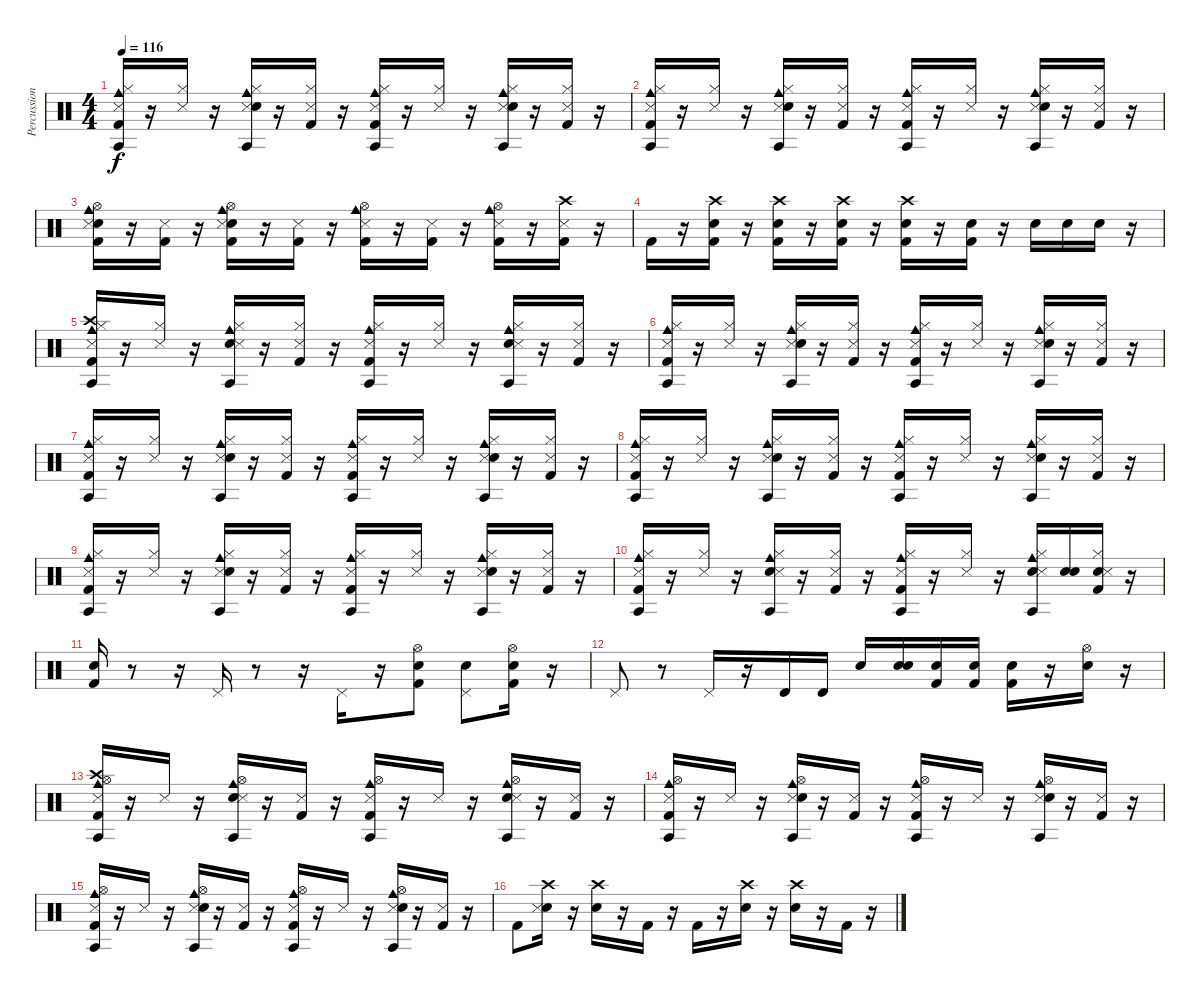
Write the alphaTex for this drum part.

\track ("Percussion" "Percussion") {instrument percussion}
\staff {score}
\articulation defaults
\ts (4 4)
\tempo 116
\clef neutral
\ks c
("Agogo tow (hit)" "Snare (side stick) 3" "Cowbell medium (hit)" "Hi-Hat (closed)" "Kick (hit) 2").16{dy f} r.16 ("Snare (side stick) 3" "Hi-Hat (closed)").16 r.16 ("Agogo tow (hit)" "Snare (side stick) 3" "Cowbell medium (hit)" "Hi-Hat (closed)" "Snare (hit) 2").16 r.16 ("Snare (side stick) 3" "Hi-Hat (closed)" "Kick (hit) 2").16 r.16 ("Agogo tow (hit)" "Snare (side stick) 3" "Cowbell medium (hit)" "Hi-Hat (closed)" "Kick (hit) 2").16 r.16 ("Snare (side stick) 3" "Hi-Hat (closed)").16 r.16 ("Agogo tow (hit)" "Snare (side stick) 3" "Cowbell medium (hit)" "Hi-Hat (closed)" "Snare (hit) 2").16 r.16 ("Snare (side stick) 3" "Hi-Hat (closed)" "Kick (hit) 2").16 r.16 |
("Cowbell medium (hit)" "Snare (side stick) 3" "Agogo tow (hit)" "Kick (hit) 2" "Hi-Hat (closed)").16 r.16 ("Snare (side stick) 3" "Hi-Hat (closed)").16 r.16 ("Cowbell medium (hit)" "Snare (side stick) 3" "Agogo tow (hit)" "Snare (hit) 2" "Hi-Hat (closed)").16 r.16 ("Snare (side stick) 3" "Kick (hit) 2" "Hi-Hat (closed)").16 r.16 ("Cowbell medium (hit)" "Snare (side stick) 3" "Agogo tow (hit)" "Kick (hit) 2" "Hi-Hat (closed)").16 r.16 ("Snare (side stick) 3" "Hi-Hat (closed)").16 r.16 ("Cowbell medium (hit)" "Snare (side stick) 3" "Agogo tow (hit)" "Snare (hit) 2" "Hi-Hat (closed)").16 r.16 ("Snare (side stick) 3" "Kick (hit) 2" "Hi-Hat (closed)").16 r.16 |
("Electric Snare (hit)" "Snare (side stick) 3" "Cowbell medium (hit)" "Hi-Hat (open)" "Kick (hit) 2").16 r.16 ("Snare (side stick) 3" "Kick (hit) 2").16 r.16 ("Electric Snare (hit)" "Snare (side stick) 3" "Cowbell medium (hit)" "Hi-Hat (open)" "Kick (hit) 2").16 r.16 ("Snare (side stick) 3" "Kick (hit) 2").16 r.16 ("Snare (side stick) 3" "Cowbell medium (hit)" "Hi-Hat (open)" "Kick (hit) 2").16 r.16 ("Snare (side stick) 3" "Kick (hit) 2").16 r.16 ("Snare (side stick) 3" "Cowbell medium (hit)" "Hi-Hat (open)" "Kick (hit) 2").16 r.16 ("Crash high (hit)" "Snare (side stick) 3" "Kick (hit) 2").16 r.16 |
"Kick (hit) 2".16 r.16 ("Crash high (hit)" "Snare (hit) 2" "Kick (hit) 2").16 r.16 ("Snare (hit) 2" "Crash high (hit)" "Kick (hit) 2").16 r.16 ("Snare (hit) 2" "Kick (hit) 2" "Crash high (hit)").16 r.16 ("Snare (hit) 2" "Crash high (hit)" "Kick (hit) 2").16 r.16 ("Snare (hit) 2" "Kick (hit) 2").16 r.16 "Snare (hit) 2".16 "Snare (hit) 2".16 "Snare (hit) 2".16 r.16 |
("Kick (hit) 2" "Hi-Hat (closed)" "Agogo tow (hit)" "Crash high (hit)" "Cowbell medium (hit)" "Snare (side stick) 3").16 r.16 ("Hi-Hat (closed)" "Snare (side stick) 3").16 r.16 ("Snare (hit) 2" "Hi-Hat (closed)" "Agogo tow (hit)" "Cowbell medium (hit)" "Snare (side stick) 3").16 r.16 ("Kick (hit) 2" "Hi-Hat (closed)" "Snare (side stick) 3").16 r.16 ("Kick (hit) 2" "Hi-Hat (closed)" "Agogo tow (hit)" "Cowbell medium (hit)" "Snare (side stick) 3").16 r.16 ("Hi-Hat (closed)" "Snare (side stick) 3").16 r.16 ("Snare (hit) 2" "Hi-Hat (closed)" "Agogo tow (hit)" "Cowbell medium (hit)" "Snare (side stick) 3").16 r.16 ("Kick (hit) 2" "Hi-Hat (closed)" "Snare (side stick) 3").16 r.16 |
("Cowbell medium (hit)" "Snare (side stick) 3" "Hi-Hat (closed)" "Agogo tow (hit)" "Kick (hit) 2").16 r.16 ("Snare (side stick) 3" "Hi-Hat (closed)").16 r.16 ("Cowbell medium (hit)" "Snare (side stick) 3" "Hi-Hat (closed)" "Agogo tow (hit)" "Snare (hit) 2").16 r.16 ("Snare (side stick) 3" "Hi-Hat (closed)" "Kick (hit) 2").16 r.16 ("Cowbell medium (hit)" "Snare (side stick) 3" "Hi-Hat (closed)" "Agogo tow (hit)" "Kick (hit) 2").16 r.16 ("Snare (side stick) 3" "Hi-Hat (closed)").16 r.16 ("Cowbell medium (hit)" "Snare (side stick) 3" "Hi-Hat (closed)" "Agogo tow (hit)" "Snare (hit) 2").16 r.16 ("Snare (side stick) 3" "Hi-Hat (closed)" "Kick (hit) 2").16 r.16 |
("Snare (side stick) 3" "Agogo tow (hit)" "Kick (hit) 2" "Cowbell medium (hit)" "Hi-Hat (closed)").16 r.16 ("Snare (side stick) 3" "Hi-Hat (closed)").16 r.16 ("Snare (side stick) 3" "Agogo tow (hit)" "Snare (hit) 2" "Cowbell medium (hit)" "Hi-Hat (closed)").16 r.16 ("Snare (side stick) 3" "Kick (hit) 2" "Hi-Hat (closed)").16 r.16 ("Snare (side stick) 3" "Agogo tow (hit)" "Kick (hit) 2" "Cowbell medium (hit)" "Hi-Hat (closed)").16 r.16 ("Snare (side stick) 3" "Hi-Hat (closed)").16 r.16 ("Snare (side stick) 3" "Agogo tow (hit)" "Snare (hit) 2" "Cowbell medium (hit)" "Hi-Hat (closed)").16 r.16 ("Snare (side stick) 3" "Kick (hit) 2" "Hi-Hat (closed)").16 r.16 |
("Cowbell medium (hit)" "Agogo tow (hit)" "Snare (side stick) 3" "Kick (hit) 2" "Hi-Hat (closed)").16 r.16 ("Snare (side stick) 3" "Hi-Hat (closed)").16 r.16 ("Cowbell medium (hit)" "Agogo tow (hit)" "Snare (side stick) 3" "Snare (hit) 2" "Hi-Hat (closed)").16 r.16 ("Snare (side stick) 3" "Kick (hit) 2" "Hi-Hat (closed)").16 r.16 ("Cowbell medium (hit)" "Agogo tow (hit)" "Snare (side stick) 3" "Kick (hit) 2" "Hi-Hat (closed)").16 r.16 ("Snare (side stick) 3" "Hi-Hat (closed)").16 r.16 ("Cowbell medium (hit)" "Agogo tow (hit)" "Snare (side stick) 3" "Snare (hit) 2" "Hi-Hat (closed)").16 r.16 ("Snare (side stick) 3" "Kick (hit) 2" "Hi-Hat (closed)").16 r.16 |
("Hi-Hat (closed)" "Cowbell medium (hit)" "Snare (side stick) 3" "Agogo tow (hit)" "Kick (hit) 2").16 r.16 ("Hi-Hat (closed)" "Snare (side stick) 3").16 r.16 ("Hi-Hat (closed)" "Cowbell medium (hit)" "Snare (side stick) 3" "Agogo tow (hit)" "Snare (hit) 2").16 r.16 ("Hi-Hat (closed)" "Snare (side stick) 3" "Kick (hit) 2").16 r.16 ("Hi-Hat (closed)" "Cowbell medium (hit)" "Snare (side stick) 3" "Agogo tow (hit)" "Kick (hit) 2").16 r.16 ("Hi-Hat (closed)" "Snare (side stick) 3").16 r.16 ("Hi-Hat (closed)" "Cowbell medium (hit)" "Snare (side stick) 3" "Agogo tow (hit)" "Snare (hit) 2").16 r.16 ("Hi-Hat (closed)" "Snare (side stick) 3" "Kick (hit) 2").16 r.16 |
("Kick (hit) 2" "Agogo tow (hit)" "Cowbell medium (hit)" "Snare (side stick) 3" "Hi-Hat (closed)").16 r.16 ("Snare (side stick) 3" "Hi-Hat (closed)").16 r.16 ("Snare (hit) 2" "Agogo tow (hit)" "Cowbell medium (hit)" "Snare (side stick) 3" "Hi-Hat (closed)").16 r.16 ("Kick (hit) 2" "Snare (side stick) 3" "Hi-Hat (closed)").16 r.16 ("Kick (hit) 2" "Agogo tow (hit)" "Cowbell medium (hit)" "Snare (side stick) 3" "Hi-Hat (closed)").16 r.16 ("Snare (side stick) 3" "Hi-Hat (closed)").16 r.16 ("Snare (hit) 2" "Agogo tow (hit)" "Cowbell medium (hit)" "Snare (side stick) 3" "Hi-Hat (closed)").16 ("Snare (hit)" "Snare (hit) 2").16 ("Snare (hit) 2" "Kick (hit) 2" "Snare (side stick) 3" "Hi-Hat (closed)").16 r.16 |
("Kick (hit) 2" "Snare (hit) 2").16 r.8 r.16 "Pedal Hi-Hat (hit)".16 r.8 r.16 "Pedal Hi-Hat (hit)".16 r.16 ("Snare (hit) 2" "Kick (hit) 2" "Hi-Hat (open)").8 ("Snare (hit)" "Pedal Hi-Hat (hit)").8 ("Kick (hit) 2" "Snare (hit) 2" "Hi-Hat (open)").16 r.16 |
"Pedal Hi-Hat (hit)".8 r.8 "Pedal Hi-Hat (hit)".16 r.16 "Timbale high (hit)".16 "Timbale high (hit)".16 "Snare (hit) 2".16 ("Snare (hit)" "Electric Snare (hit)").16 ("Snare (hit)" "Kick (hit) 2").16 ("Snare (hit)" "Kick (hit) 2").16 ("Snare (hit)" "Kick (hit) 2").16 r.16 ("Hi-Hat (open)" "Snare (hit) 2").16 r.16 |
("Hi-Hat (open)" "Kick (hit) 2" "Agogo tow (hit)" "Crash high (hit)" "Cowbell medium (hit)" "Snare (side stick) 3").16 r.16 "Snare (side stick) 3".16 r.16 ("Hi-Hat (open)" "Snare (hit) 2" "Agogo tow (hit)" "Cowbell medium (hit)" "Snare (side stick) 3").16 r.16 ("Kick (hit) 2" "Snare (side stick) 3").16 r.16 ("Hi-Hat (open)" "Kick (hit) 2" "Agogo tow (hit)" "Cowbell medium (hit)" "Snare (side stick) 3").16 r.16 "Snare (side stick) 3".16 r.16 ("Hi-Hat (open)" "Snare (hit) 2" "Agogo tow (hit)" "Cowbell medium (hit)" "Snare (side stick) 3").16 r.16 ("Kick (hit) 2" "Snare (side stick) 3").16 r.16 |
("Hi-Hat (open)" "Cowbell medium (hit)" "Snare (side stick) 3" "Agogo tow (hit)" "Kick (hit) 2").16 r.16 "Snare (side stick) 3".16 r.16 ("Hi-Hat (open)" "Cowbell medium (hit)" "Snare (side stick) 3" "Agogo tow (hit)" "Snare (hit) 2").16 r.16 ("Snare (side stick) 3" "Kick (hit) 2").16 r.16 ("Hi-Hat (open)" "Cowbell medium (hit)" "Snare (side stick) 3" "Agogo tow (hit)" "Kick (hit) 2").16 r.16 "Snare (side stick) 3".16 r.16 ("Hi-Hat (open)" "Cowbell medium (hit)" "Snare (side stick) 3" "Agogo tow (hit)" "Snare (hit) 2").16 r.16 ("Snare (side stick) 3" "Kick (hit) 2").16 r.16 |
("Hi-Hat (open)" "Snare (side stick) 3" "Agogo tow (hit)" "Kick (hit) 2" "Cowbell medium (hit)").16 r.16 "Snare (side stick) 3".16 r.16 ("Hi-Hat (open)" "Snare (side stick) 3" "Agogo tow (hit)" "Snare (hit) 2" "Cowbell medium (hit)").16 r.16 ("Snare (side stick) 3" "Kick (hit) 2").16 r.16 ("Hi-Hat (open)" "Snare (side stick) 3" "Agogo tow (hit)" "Kick (hit) 2" "Cowbell medium (hit)").16 r.16 "Snare (side stick) 3".16 r.16 ("Hi-Hat (open)" "Snare (side stick) 3" "Agogo tow (hit)" "Snare (hit) 2" "Cowbell medium (hit)").16 r.16 ("Snare (side stick) 3" "Kick (hit) 2").16 r.16 |
"Kick (hit) 2".8 ("Crash high (hit)" "Snare (hit) 2" "Snare (side stick) 3").16 r.16 ("Snare (hit) 2" "Crash high (hit)").16 r.16 "Kick (hit) 2".16 r.16 "Kick (hit) 2".16 r.16 ("Snare (hit) 2" "Crash high (hit)").16 r.16 ("Snare (hit) 2" "Crash high (hit)").16 r.16 "Kick (hit) 2".16 r.16
